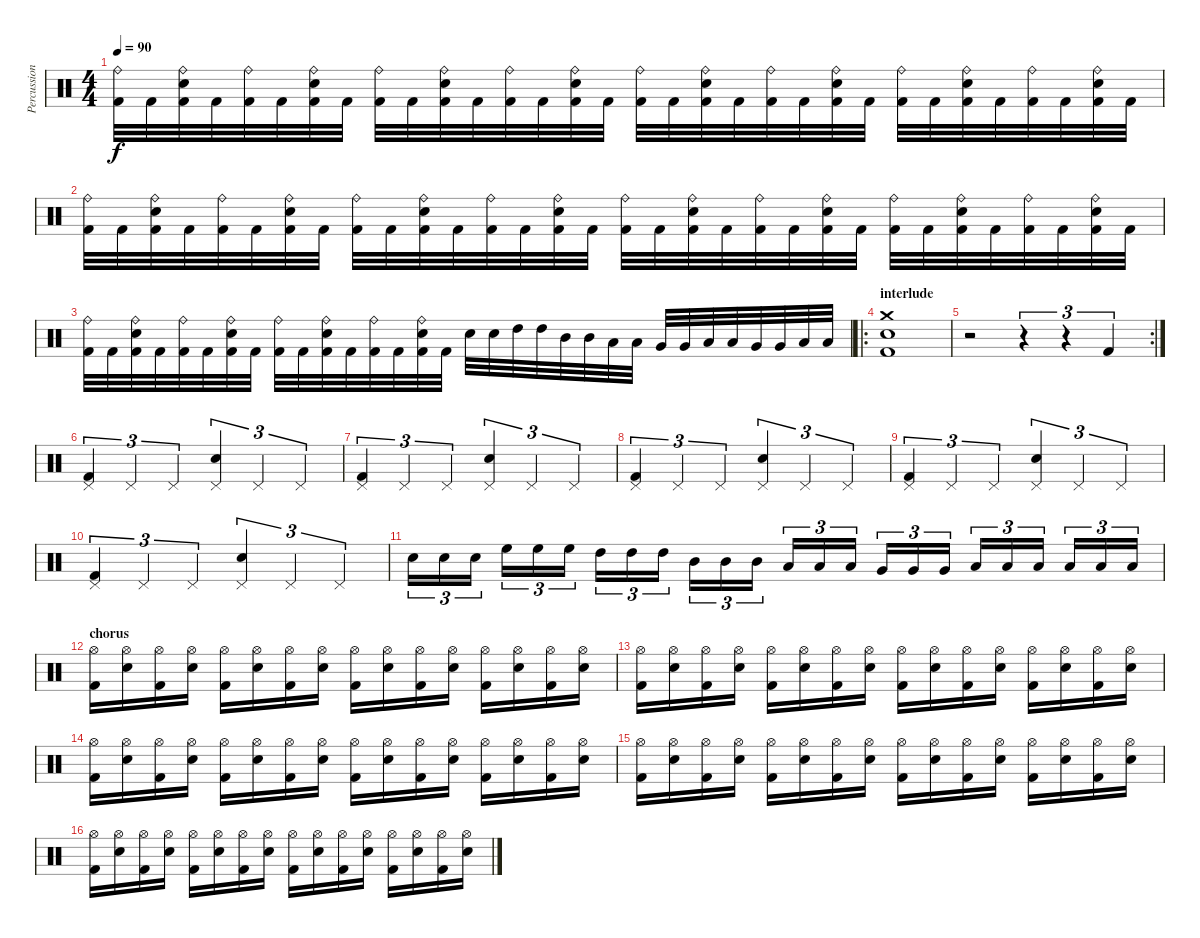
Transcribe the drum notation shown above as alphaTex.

\track ("Percussions" "Percussion") {instrument percussion}
\staff {score}
\articulation defaults
\ts (4 4)
\tempo 90
\clef neutral
\ks c
("Ride (bell)" "Kick (hit) 2").32{dy f} "Kick (hit) 2".32 ("Ride (bell)" "Electric Snare (hit)" "Kick (hit) 2").32 "Kick (hit) 2".32 ("Ride (bell)" "Kick (hit) 2").32 "Kick (hit) 2".32 ("Ride (bell)" "Electric Snare (hit)" "Kick (hit) 2").32 "Kick (hit) 2".32 ("Ride (bell)" "Kick (hit) 2").32 "Kick (hit) 2".32 ("Ride (bell)" "Electric Snare (hit)" "Kick (hit) 2").32 "Kick (hit) 2".32 ("Ride (bell)" "Kick (hit) 2").32 "Kick (hit) 2".32 ("Ride (bell)" "Electric Snare (hit)" "Kick (hit) 2").32 "Kick (hit) 2".32 ("Ride (bell)" "Kick (hit) 2").32 "Kick (hit) 2".32 ("Ride (bell)" "Electric Snare (hit)" "Kick (hit) 2").32 "Kick (hit) 2".32 ("Ride (bell)" "Kick (hit) 2").32 "Kick (hit) 2".32 ("Ride (bell)" "Electric Snare (hit)" "Kick (hit) 2").32 "Kick (hit) 2".32 ("Ride (bell)" "Kick (hit) 2").32 "Kick (hit) 2".32 ("Ride (bell)" "Electric Snare (hit)" "Kick (hit) 2").32 "Kick (hit) 2".32 ("Ride (bell)" "Kick (hit) 2").32 "Kick (hit) 2".32 ("Ride (bell)" "Electric Snare (hit)" "Kick (hit) 2").32 "Kick (hit) 2".32 |
("Ride (bell)" "Kick (hit) 2").32 "Kick (hit) 2".32 ("Ride (bell)" "Electric Snare (hit)" "Kick (hit) 2").32 "Kick (hit) 2".32 ("Ride (bell)" "Kick (hit) 2").32 "Kick (hit) 2".32 ("Ride (bell)" "Electric Snare (hit)" "Kick (hit) 2").32 "Kick (hit) 2".32 ("Ride (bell)" "Kick (hit) 2").32 "Kick (hit) 2".32 ("Ride (bell)" "Electric Snare (hit)" "Kick (hit) 2").32 "Kick (hit) 2".32 ("Ride (bell)" "Kick (hit) 2").32 "Kick (hit) 2".32 ("Ride (bell)" "Electric Snare (hit)" "Kick (hit) 2").32 "Kick (hit) 2".32 ("Ride (bell)" "Kick (hit) 2").32 "Kick (hit) 2".32 ("Ride (bell)" "Electric Snare (hit)" "Kick (hit) 2").32 "Kick (hit) 2".32 ("Ride (bell)" "Kick (hit) 2").32 "Kick (hit) 2".32 ("Ride (bell)" "Electric Snare (hit)" "Kick (hit) 2").32 "Kick (hit) 2".32 ("Ride (bell)" "Kick (hit) 2").32 "Kick (hit) 2".32 ("Ride (bell)" "Electric Snare (hit)" "Kick (hit) 2").32 "Kick (hit) 2".32 ("Ride (bell)" "Kick (hit) 2").32 "Kick (hit) 2".32 ("Ride (bell)" "Electric Snare (hit)" "Kick (hit) 2").32 "Kick (hit) 2".32 |
("Ride (bell)" "Kick (hit) 2").32 "Kick (hit) 2".32 ("Ride (bell)" "Electric Snare (hit)" "Kick (hit) 2").32 "Kick (hit) 2".32 ("Ride (bell)" "Kick (hit) 2").32 "Kick (hit) 2".32 ("Ride (bell)" "Electric Snare (hit)" "Kick (hit) 2").32 "Kick (hit) 2".32 ("Ride (bell)" "Kick (hit) 2").32 "Kick (hit) 2".32 ("Ride (bell)" "Electric Snare (hit)" "Kick (hit) 2").32 "Kick (hit) 2".32 ("Ride (bell)" "Kick (hit) 2").32 "Kick (hit) 2".32 ("Ride (bell)" "Electric Snare (hit)" "Kick (hit) 2").32 "Kick (hit) 2".32 "Electric Snare (hit)".32 "Electric Snare (hit)".32 "High Tom (hit)".32 "High Tom (hit)".32 "Mid Tom (hit)".32 "Mid Tom (hit)".32 "Low Tom (hit)".32 "Low Tom (hit)".32 "Very Low Tom (hit)".32 "Very Low Tom (hit)".32 "Low Floor Tom (hit)".32 "Low Floor Tom (hit)".32 "Very Low Tom (hit)".32 "Very Low Tom (hit)".32 "Low Floor Tom (hit)".32 "Low Floor Tom (hit)".32 |
\ro
\section ("" "interlude")
("Crash medium (hit)" "Electric Snare (hit)" "Kick (hit) 2").1 |
\rc 2
r.2 r.4{tu (3 2)} r.4{tu (3 2)} "Kick (hit) 2".4{tu (3 2)} |
("Pedal Hi-Hat (hit)" "Kick (hit) 2").4{tu (3 2)} "Pedal Hi-Hat (hit)".4{tu (3 2)} "Pedal Hi-Hat (hit)".4{tu (3 2)} ("Pedal Hi-Hat (hit)" "Electric Snare (hit)").4{tu (3 2)} "Pedal Hi-Hat (hit)".4{tu (3 2)} "Pedal Hi-Hat (hit)".4{tu (3 2)} |
("Pedal Hi-Hat (hit)" "Kick (hit) 2").4{tu (3 2)} "Pedal Hi-Hat (hit)".4{tu (3 2)} "Pedal Hi-Hat (hit)".4{tu (3 2)} ("Pedal Hi-Hat (hit)" "Electric Snare (hit)").4{tu (3 2)} "Pedal Hi-Hat (hit)".4{tu (3 2)} "Pedal Hi-Hat (hit)".4{tu (3 2)} |
("Pedal Hi-Hat (hit)" "Kick (hit) 2").4{tu (3 2)} "Pedal Hi-Hat (hit)".4{tu (3 2)} "Pedal Hi-Hat (hit)".4{tu (3 2)} ("Pedal Hi-Hat (hit)" "Electric Snare (hit)").4{tu (3 2)} "Pedal Hi-Hat (hit)".4{tu (3 2)} "Pedal Hi-Hat (hit)".4{tu (3 2)} |
("Pedal Hi-Hat (hit)" "Kick (hit) 2").4{tu (3 2)} "Pedal Hi-Hat (hit)".4{tu (3 2)} "Pedal Hi-Hat (hit)".4{tu (3 2)} ("Pedal Hi-Hat (hit)" "Electric Snare (hit)").4{tu (3 2)} "Pedal Hi-Hat (hit)".4{tu (3 2)} "Pedal Hi-Hat (hit)".4{tu (3 2)} |
("Pedal Hi-Hat (hit)" "Kick (hit) 2").4{tu (3 2)} "Pedal Hi-Hat (hit)".4{tu (3 2)} "Pedal Hi-Hat (hit)".4{tu (3 2)} ("Pedal Hi-Hat (hit)" "Electric Snare (hit)").4{tu (3 2)} "Pedal Hi-Hat (hit)".4{tu (3 2)} "Pedal Hi-Hat (hit)".4{tu (3 2)} |
"Electric Snare (hit)".16{tu (3 2)} "Electric Snare (hit)".16{tu (3 2)} "Electric Snare (hit)".16{tu (3 2)} "High Floor Tom (hit)".16{tu (3 2)} "High Floor Tom (hit)".16{tu (3 2)} "High Floor Tom (hit)".16{tu (3 2)} "High Tom (hit)".16{tu (3 2)} "High Tom (hit)".16{tu (3 2)} "High Tom (hit)".16{tu (3 2)} "Mid Tom (hit)".16{tu (3 2)} "Mid Tom (hit)".16{tu (3 2)} "Mid Tom (hit)".16{tu (3 2)} "Low Tom (hit)".16{tu (3 2)} "Low Tom (hit)".16{tu (3 2)} "Low Tom (hit)".16{tu (3 2)} "Very Low Tom (hit)".16{tu (3 2)} "Very Low Tom (hit)".16{tu (3 2)} "Very Low Tom (hit)".16{tu (3 2)} "Low Floor Tom (hit)".16{tu (3 2)} "Low Floor Tom (hit)".16{tu (3 2)} "Low Floor Tom (hit)".16{tu (3 2)} "Low Floor Tom (hit)".16{tu (3 2)} "Low Floor Tom (hit)".16{tu (3 2)} "Low Floor Tom (hit)".16{tu (3 2)} |
\section ("" "chorus")
("Hi-Hat (open)" "Kick (hit) 2").16 ("Hi-Hat (open)" "Electric Snare (hit)").16 ("Hi-Hat (open)" "Kick (hit) 2").16 ("Hi-Hat (open)" "Electric Snare (hit)").16 ("Hi-Hat (open)" "Kick (hit) 2").16 ("Hi-Hat (open)" "Electric Snare (hit)").16 ("Hi-Hat (open)" "Kick (hit) 2").16 ("Hi-Hat (open)" "Electric Snare (hit)").16 ("Hi-Hat (open)" "Kick (hit) 2").16 ("Hi-Hat (open)" "Electric Snare (hit)").16 ("Hi-Hat (open)" "Kick (hit) 2").16 ("Hi-Hat (open)" "Electric Snare (hit)").16 ("Hi-Hat (open)" "Kick (hit) 2").16 ("Hi-Hat (open)" "Electric Snare (hit)").16 ("Hi-Hat (open)" "Kick (hit) 2").16 ("Hi-Hat (open)" "Electric Snare (hit)").16 |
("Hi-Hat (open)" "Kick (hit) 2").16 ("Hi-Hat (open)" "Electric Snare (hit)").16 ("Hi-Hat (open)" "Kick (hit) 2").16 ("Hi-Hat (open)" "Electric Snare (hit)").16 ("Hi-Hat (open)" "Kick (hit) 2").16 ("Hi-Hat (open)" "Electric Snare (hit)").16 ("Hi-Hat (open)" "Kick (hit) 2").16 ("Hi-Hat (open)" "Electric Snare (hit)").16 ("Hi-Hat (open)" "Kick (hit) 2").16 ("Hi-Hat (open)" "Electric Snare (hit)").16 ("Hi-Hat (open)" "Kick (hit) 2").16 ("Hi-Hat (open)" "Electric Snare (hit)").16 ("Hi-Hat (open)" "Kick (hit) 2").16 ("Hi-Hat (open)" "Electric Snare (hit)").16 ("Hi-Hat (open)" "Kick (hit) 2").16 ("Hi-Hat (open)" "Electric Snare (hit)").16 |
("Hi-Hat (open)" "Kick (hit) 2").16 ("Hi-Hat (open)" "Electric Snare (hit)").16 ("Hi-Hat (open)" "Kick (hit) 2").16 ("Hi-Hat (open)" "Electric Snare (hit)").16 ("Hi-Hat (open)" "Kick (hit) 2").16 ("Hi-Hat (open)" "Electric Snare (hit)").16 ("Hi-Hat (open)" "Kick (hit) 2").16 ("Hi-Hat (open)" "Electric Snare (hit)").16 ("Hi-Hat (open)" "Kick (hit) 2").16 ("Hi-Hat (open)" "Electric Snare (hit)").16 ("Hi-Hat (open)" "Kick (hit) 2").16 ("Hi-Hat (open)" "Electric Snare (hit)").16 ("Hi-Hat (open)" "Kick (hit) 2").16 ("Hi-Hat (open)" "Electric Snare (hit)").16 ("Hi-Hat (open)" "Kick (hit) 2").16 ("Hi-Hat (open)" "Electric Snare (hit)").16 |
("Hi-Hat (open)" "Kick (hit) 2").16 ("Hi-Hat (open)" "Electric Snare (hit)").16 ("Hi-Hat (open)" "Kick (hit) 2").16 ("Hi-Hat (open)" "Electric Snare (hit)").16 ("Hi-Hat (open)" "Kick (hit) 2").16 ("Hi-Hat (open)" "Electric Snare (hit)").16 ("Hi-Hat (open)" "Kick (hit) 2").16 ("Hi-Hat (open)" "Electric Snare (hit)").16 ("Hi-Hat (open)" "Kick (hit) 2").16 ("Hi-Hat (open)" "Electric Snare (hit)").16 ("Hi-Hat (open)" "Kick (hit) 2").16 ("Hi-Hat (open)" "Electric Snare (hit)").16 ("Hi-Hat (open)" "Kick (hit) 2").16 ("Hi-Hat (open)" "Electric Snare (hit)").16 ("Hi-Hat (open)" "Kick (hit) 2").16 ("Hi-Hat (open)" "Electric Snare (hit)").16 |
("Hi-Hat (open)" "Kick (hit) 2").16 ("Hi-Hat (open)" "Electric Snare (hit)").16 ("Hi-Hat (open)" "Kick (hit) 2").16 ("Hi-Hat (open)" "Electric Snare (hit)").16 ("Hi-Hat (open)" "Kick (hit) 2").16 ("Hi-Hat (open)" "Electric Snare (hit)").16 ("Hi-Hat (open)" "Kick (hit) 2").16 ("Hi-Hat (open)" "Electric Snare (hit)").16 ("Hi-Hat (open)" "Kick (hit) 2").16 ("Hi-Hat (open)" "Electric Snare (hit)").16 ("Hi-Hat (open)" "Kick (hit) 2").16 ("Hi-Hat (open)" "Electric Snare (hit)").16 ("Hi-Hat (open)" "Kick (hit) 2").16 ("Hi-Hat (open)" "Electric Snare (hit)").16 ("Hi-Hat (open)" "Kick (hit) 2").16 ("Hi-Hat (open)" "Electric Snare (hit)").16
